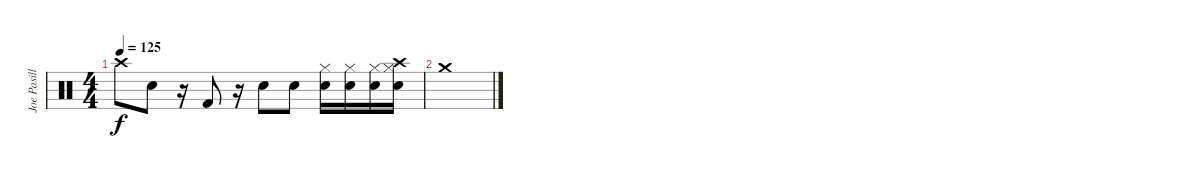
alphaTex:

\track ("Joe Pasillas" "Joe Pasill") {instrument percussion}
\staff {score}
\articulation defaults
\ts (4 4)
\tempo 125
\clef neutral
\ks c "Crash high (hit)".8{dy f} "Snare (hit) 2".8
r.16 "Kick (hit) 2".8 r.16 "Snare (hit) 2".8 "Snare (hit) 2".8 ("Hi-Hat (closed)" "Snare (hit) 2").16 ("Hi-Hat (closed)" "Snare (hit) 2").16 ("Hi-Hat (closed)" "Snare (hit) 2").16 ("Crash high (hit)" "Hi-Hat (closed)" "Snare (hit) 2").16 |
"Crash medium (hit)".1
